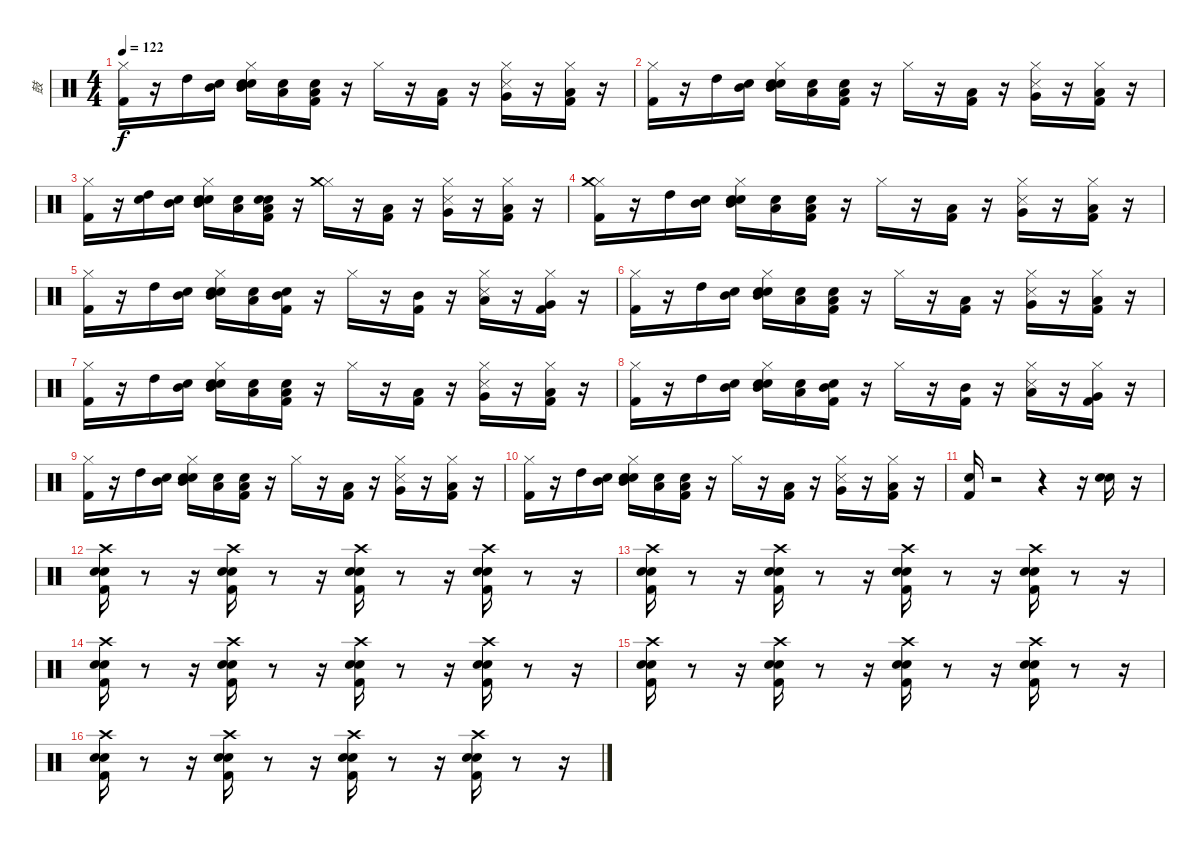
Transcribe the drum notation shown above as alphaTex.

\track ("鼓" "鼓") {instrument percussion}
\staff {score}
\articulation defaults
\ts (4 4)
\tempo 122
\clef neutral
\ks c
("Hi-Hat (closed)" "Kick (hit) 2").16{dy f} r.16 "High Tom (hit)".16 ("Snare (hit)" "Mid Tom (hit)").16 ("Snare (hit)" "Snare (hit) 2" "Hi-Hat (closed)" "Mid Tom (hit)").16 ("Snare (hit)" "Low Tom (hit)").16 ("Snare (hit)" "Low Tom (hit)" "Kick (hit) 2").16 r.16 "Hi-Hat (closed)".16 r.16 ("Kick (hit) 2" "Low Tom (hit)").16 r.16 ("Hi-Hat (closed)" "Very Low Tom (hit)" "Snare (side stick) 3").16 r.16 ("Kick (hit) 2" "Low Floor Tom (hit)" "Hi-Hat (closed)").16 r.16 |
("Hi-Hat (closed)" "Kick (hit) 2").16 r.16 "High Tom (hit)".16 ("Snare (hit)" "Mid Tom (hit)").16 ("Snare (hit)" "Snare (hit) 2" "Hi-Hat (closed)" "Mid Tom (hit)").16 ("Snare (hit)" "Low Tom (hit)").16 ("Snare (hit)" "Low Tom (hit)" "Kick (hit) 2").16 r.16 "Hi-Hat (closed)".16 r.16 ("Kick (hit) 2" "Low Tom (hit)").16 r.16 ("Hi-Hat (closed)" "Very Low Tom (hit)" "Snare (side stick) 3").16 r.16 ("Kick (hit) 2" "Low Floor Tom (hit)" "Hi-Hat (closed)").16 r.16 |
("Hi-Hat (closed)" "Kick (hit) 2").16 r.16 ("High Tom (hit)" "Snare (hit) 2").16 ("Snare (hit)" "Mid Tom (hit)").16 ("Snare (hit)" "Snare (hit) 2" "Hi-Hat (closed)" "Mid Tom (hit)").16 ("Snare (hit)" "Low Tom (hit)").16 ("Snare (hit)" "Low Tom (hit)" "Kick (hit) 2" "Snare (hit) 2").16 r.16 ("Hi-Hat (closed)" "Crash medium (hit)").16 r.16 ("Kick (hit) 2" "Low Tom (hit)").16 r.16 ("Hi-Hat (closed)" "Very Low Tom (hit)" "Snare (side stick) 3").16 r.16 ("Kick (hit) 2" "Low Floor Tom (hit)" "Hi-Hat (closed)").16 r.16 |
("Kick (hit) 2" "Hi-Hat (closed)" "Crash medium (hit)").16 r.16 "High Tom (hit)".16 ("Snare (hit)" "Mid Tom (hit)").16 ("Snare (hit)" "Snare (hit) 2" "Mid Tom (hit)" "Hi-Hat (closed)").16 ("Snare (hit)" "Low Tom (hit)").16 ("Snare (hit)" "Low Tom (hit)" "Kick (hit) 2").16 r.16 "Hi-Hat (closed)".16 r.16 ("Kick (hit) 2" "Low Tom (hit)").16 r.16 ("Very Low Tom (hit)" "Hi-Hat (closed)" "Snare (side stick) 3").16 r.16 ("Kick (hit) 2" "Low Floor Tom (hit)" "Hi-Hat (closed)").16 r.16 |
("Kick (hit) 2" "Hi-Hat (closed)").16 r.16 "High Tom (hit)".16 ("Snare (hit)" "Mid Tom (hit)").16 ("Snare (hit)" "Snare (hit) 2" "Hi-Hat (closed)" "Mid Tom (hit)").16 ("Snare (hit)" "Low Tom (hit)").16 ("Snare (hit)" "Kick (hit) 2" "Mid Tom (hit)").16 r.16 "Hi-Hat (closed)".16 r.16 ("Kick (hit) 2" "Mid Tom (hit)").16 r.16 ("Hi-Hat (closed)" "Low Tom (hit)" "Snare (side stick) 3").16 r.16 ("Kick (hit) 2" "Very Low Tom (hit)" "Hi-Hat (closed)").16 r.16 |
("Hi-Hat (closed)" "Kick (hit) 2").16 r.16 "High Tom (hit)".16 ("Snare (hit)" "Mid Tom (hit)").16 ("Snare (hit)" "Snare (hit) 2" "Hi-Hat (closed)" "Mid Tom (hit)").16 ("Snare (hit)" "Low Tom (hit)").16 ("Snare (hit)" "Low Tom (hit)" "Kick (hit) 2").16 r.16 "Hi-Hat (closed)".16 r.16 ("Kick (hit) 2" "Low Tom (hit)").16 r.16 ("Hi-Hat (closed)" "Very Low Tom (hit)" "Snare (side stick) 3").16 r.16 ("Kick (hit) 2" "Low Floor Tom (hit)" "Hi-Hat (closed)").16 r.16 |
("Hi-Hat (closed)" "Kick (hit) 2").16 r.16 "High Tom (hit)".16 ("Snare (hit)" "Mid Tom (hit)").16 ("Snare (hit)" "Snare (hit) 2" "Hi-Hat (closed)" "Mid Tom (hit)").16 ("Snare (hit)" "Low Tom (hit)").16 ("Snare (hit)" "Low Tom (hit)" "Kick (hit) 2").16 r.16 "Hi-Hat (closed)".16 r.16 ("Kick (hit) 2" "Low Tom (hit)").16 r.16 ("Hi-Hat (closed)" "Very Low Tom (hit)" "Snare (side stick) 3").16 r.16 ("Kick (hit) 2" "Low Floor Tom (hit)" "Hi-Hat (closed)").16 r.16 |
("Kick (hit) 2" "Hi-Hat (closed)").16 r.16 "High Tom (hit)".16 ("Snare (hit)" "Mid Tom (hit)").16 ("Snare (hit)" "Snare (hit) 2" "Hi-Hat (closed)" "Mid Tom (hit)").16 ("Snare (hit)" "Low Tom (hit)").16 ("Snare (hit)" "Kick (hit) 2" "Mid Tom (hit)").16 r.16 "Hi-Hat (closed)".16 r.16 ("Kick (hit) 2" "Mid Tom (hit)").16 r.16 ("Hi-Hat (closed)" "Low Tom (hit)" "Snare (side stick) 3").16 r.16 ("Kick (hit) 2" "Very Low Tom (hit)" "Hi-Hat (closed)").16 r.16 |
("Hi-Hat (closed)" "Kick (hit) 2").16 r.16 "High Tom (hit)".16 ("Snare (hit)" "Mid Tom (hit)").16 ("Snare (hit)" "Snare (hit) 2" "Hi-Hat (closed)" "Mid Tom (hit)").16 ("Snare (hit)" "Low Tom (hit)").16 ("Snare (hit)" "Low Tom (hit)" "Kick (hit) 2").16 r.16 "Hi-Hat (closed)".16 r.16 ("Kick (hit) 2" "Low Tom (hit)").16 r.16 ("Hi-Hat (closed)" "Very Low Tom (hit)" "Snare (side stick) 3").16 r.16 ("Kick (hit) 2" "Low Floor Tom (hit)" "Hi-Hat (closed)").16 r.16 |
("Hi-Hat (closed)" "Kick (hit) 2").16 r.16 "High Tom (hit)".16 ("Snare (hit)" "Mid Tom (hit)").16 ("Snare (hit)" "Snare (hit) 2" "Hi-Hat (closed)" "Mid Tom (hit)").16 ("Snare (hit)" "Low Tom (hit)").16 ("Snare (hit)" "Low Tom (hit)" "Kick (hit) 2").16 r.16 "Hi-Hat (closed)".16 r.16 ("Kick (hit) 2" "Low Tom (hit)").16 r.16 ("Hi-Hat (closed)" "Very Low Tom (hit)" "Snare (side stick) 3").16 r.16 ("Kick (hit) 2" "Low Floor Tom (hit)" "Hi-Hat (closed)").16 r.16 |
("Kick (hit) 2" "Electric Snare (hit)").16 r.2 r.4 r.16 ("Electric Snare (hit)" "Snare (hit) 2").16 r.16 |
("Crash high (hit)" "Electric Snare (hit)" "Snare (hit) 2" "Kick (hit) 2").16 r.8 r.16 ("Crash high (hit)" "Kick (hit) 2" "Snare (hit) 2" "Electric Snare (hit)").16 r.8 r.16 ("Crash high (hit)" "Kick (hit) 2" "Snare (hit) 2" "Electric Snare (hit)").16 r.8 r.16 ("Crash high (hit)" "Kick (hit) 2" "Snare (hit) 2" "Electric Snare (hit)").16 r.8 r.16 |
("Crash high (hit)" "Kick (hit) 2" "Snare (hit) 2" "Electric Snare (hit)").16 r.8 r.16 ("Crash high (hit)" "Kick (hit) 2" "Snare (hit) 2" "Electric Snare (hit)").16 r.8 r.16 ("Crash high (hit)" "Kick (hit) 2" "Snare (hit) 2" "Electric Snare (hit)").16 r.8 r.16 ("Crash high (hit)" "Kick (hit) 2" "Snare (hit) 2" "Electric Snare (hit)").16 r.8 r.16 |
("Crash high (hit)" "Kick (hit) 2" "Snare (hit) 2" "Electric Snare (hit)").16 r.8 r.16 ("Crash high (hit)" "Kick (hit) 2" "Snare (hit) 2" "Electric Snare (hit)").16 r.8 r.16 ("Crash high (hit)" "Kick (hit) 2" "Snare (hit) 2" "Electric Snare (hit)").16 r.8 r.16 ("Crash high (hit)" "Kick (hit) 2" "Snare (hit) 2" "Electric Snare (hit)").16 r.8 r.16 |
("Crash high (hit)" "Kick (hit) 2" "Snare (hit) 2" "Electric Snare (hit)").16 r.8 r.16 ("Crash high (hit)" "Kick (hit) 2" "Snare (hit) 2" "Electric Snare (hit)").16 r.8 r.16 ("Crash high (hit)" "Kick (hit) 2" "Snare (hit) 2" "Electric Snare (hit)").16 r.8 r.16 ("Crash high (hit)" "Kick (hit) 2" "Snare (hit) 2" "Electric Snare (hit)").16 r.8 r.16 |
("Crash high (hit)" "Kick (hit) 2" "Snare (hit) 2" "Electric Snare (hit)").16 r.8 r.16 ("Crash high (hit)" "Kick (hit) 2" "Snare (hit) 2" "Electric Snare (hit)").16 r.8 r.16 ("Crash high (hit)" "Kick (hit) 2" "Snare (hit) 2" "Electric Snare (hit)").16 r.8 r.16 ("Crash high (hit)" "Kick (hit) 2" "Snare (hit) 2" "Electric Snare (hit)").16 r.8 r.16
